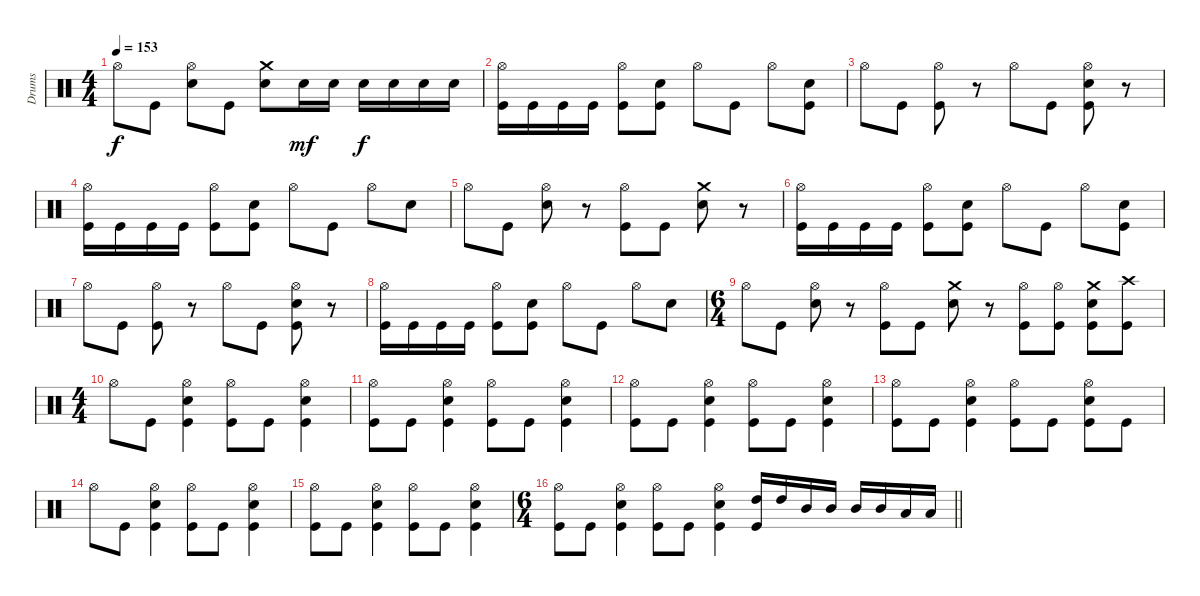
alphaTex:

\track ("Drums" "Drums") {instrument percussion}
\staff {score}
\articulation defaults
\ts (4 4)
\tempo 153
\clef neutral
\ks c "Hi-Hat (open)".8{dy f} "Kick (hit)".8
("Hi-Hat (open)" "Electric Snare (hit)").8 "Kick (hit)".8 ("Crash medium (hit)" "Electric Snare (hit)").8 "Electric Snare (hit)".16{dy mf} "Electric Snare (hit)".16 "Electric Snare (hit)".16{dy f} "Electric Snare (hit)".16 "Electric Snare (hit)".16 "Electric Snare (hit)".16 |
("Hi-Hat (open)" "Kick (hit)").16 "Kick (hit)".16 "Kick (hit)".16 "Kick (hit)".16 ("Hi-Hat (open)" "Kick (hit)").8 ("Electric Snare (hit)" "Kick (hit)").8 "Hi-Hat (open)".8 "Kick (hit)".8 "Hi-Hat (open)".8 ("Electric Snare (hit)" "Kick (hit)").8 |
"Hi-Hat (open)".8 "Kick (hit)".8 ("Hi-Hat (open)" "Kick (hit)").8 r.8 "Hi-Hat (open)".8 "Kick (hit)".8 ("Hi-Hat (open)" "Electric Snare (hit)" "Kick (hit)").8 r.8 |
("Hi-Hat (open)" "Kick (hit)").16 "Kick (hit)".16 "Kick (hit)".16 "Kick (hit)".16 ("Hi-Hat (open)" "Kick (hit)").8 ("Electric Snare (hit)" "Kick (hit)").8 "Hi-Hat (open)".8 "Kick (hit)".8 "Hi-Hat (open)".8 "Electric Snare (hit)".8 |
"Hi-Hat (open)".8 "Kick (hit)".8 ("Hi-Hat (open)" "Electric Snare (hit)").8 r.8 ("Hi-Hat (open)" "Kick (hit)").8 "Kick (hit)".8 ("Crash medium (hit)" "Electric Snare (hit)").8 r.8 |
("Hi-Hat (open)" "Kick (hit)").16 "Kick (hit)".16 "Kick (hit)".16 "Kick (hit)".16 ("Hi-Hat (open)" "Kick (hit)").8 ("Electric Snare (hit)" "Kick (hit)").8 "Hi-Hat (open)".8 "Kick (hit)".8 "Hi-Hat (open)".8 ("Electric Snare (hit)" "Kick (hit)").8 |
"Hi-Hat (open)".8 "Kick (hit)".8 ("Hi-Hat (open)" "Kick (hit)").8 r.8 "Hi-Hat (open)".8 "Kick (hit)".8 ("Hi-Hat (open)" "Electric Snare (hit)" "Kick (hit)").8 r.8 |
("Hi-Hat (open)" "Kick (hit)").16 "Kick (hit)".16 "Kick (hit)".16 "Kick (hit)".16 ("Hi-Hat (open)" "Kick (hit)").8 ("Electric Snare (hit)" "Kick (hit)").8 "Hi-Hat (open)".8 "Kick (hit)".8 "Hi-Hat (open)".8 "Electric Snare (hit)".8 |
\ts (6 4)
"Hi-Hat (open)".8 "Kick (hit)".8 ("Hi-Hat (open)" "Electric Snare (hit)").8 r.8 ("Hi-Hat (open)" "Kick (hit)").8 "Kick (hit)".8 ("Crash medium (hit)" "Electric Snare (hit)").8 r.8 ("Hi-Hat (open)" "Kick (hit)").8 ("Hi-Hat (open)" "Kick (hit)").8 ("Crash medium (hit)" "Electric Snare (hit)" "Kick (hit)").8 ("Crash high (hit)" "Kick (hit)").8 |
\ts (4 4)
"Hi-Hat (open)".8 "Kick (hit)".8 ("Hi-Hat (open)" "Electric Snare (hit)" "Kick (hit)").4 ("Hi-Hat (open)" "Kick (hit)").8 "Kick (hit)".8 ("Hi-Hat (open)" "Electric Snare (hit)" "Kick (hit)").4 |
("Hi-Hat (open)" "Kick (hit)").8 "Kick (hit)".8 ("Hi-Hat (open)" "Electric Snare (hit)" "Kick (hit)").4 ("Hi-Hat (open)" "Kick (hit)").8 "Kick (hit)".8 ("Hi-Hat (open)" "Electric Snare (hit)" "Kick (hit)").4 |
("Hi-Hat (open)" "Kick (hit)").8 "Kick (hit)".8 ("Hi-Hat (open)" "Electric Snare (hit)" "Kick (hit)").4 ("Hi-Hat (open)" "Kick (hit)").8 "Kick (hit)".8 ("Hi-Hat (open)" "Electric Snare (hit)" "Kick (hit)").4 |
("Hi-Hat (open)" "Kick (hit)").8 "Kick (hit)".8 ("Hi-Hat (open)" "Electric Snare (hit)" "Kick (hit)").4 ("Hi-Hat (open)" "Kick (hit)").8 "Kick (hit)".8 ("Hi-Hat (open)" "Electric Snare (hit)" "Kick (hit)").8 "Kick (hit)".8 |
"Hi-Hat (open)".8 "Kick (hit)".8 ("Hi-Hat (open)" "Electric Snare (hit)" "Kick (hit)").4 ("Hi-Hat (open)" "Kick (hit)").8 "Kick (hit)".8 ("Hi-Hat (open)" "Electric Snare (hit)" "Kick (hit)").4 |
("Hi-Hat (open)" "Kick (hit)").8 "Kick (hit)".8 ("Hi-Hat (open)" "Electric Snare (hit)" "Kick (hit)").4 ("Hi-Hat (open)" "Kick (hit)").8 "Kick (hit)".8 ("Hi-Hat (open)" "Electric Snare (hit)" "Kick (hit)").4 |
\ts (6 4)
\barLineRight lightlight
("Hi-Hat (open)" "Kick (hit)").8 "Kick (hit)".8 ("Hi-Hat (open)" "Electric Snare (hit)" "Kick (hit)").4 ("Hi-Hat (open)" "Kick (hit)").8 "Kick (hit)".8 ("Hi-Hat (open)" "Electric Snare (hit)" "Kick (hit)").4 ("High Tom (hit)" "Kick (hit)").16 "High Tom (hit)".16 "Mid Tom (hit)".16 "Mid Tom (hit)".16 "Mid Tom (hit)".16 "Mid Tom (hit)".16 "Low Tom (hit)".16 "Low Tom (hit)".16
